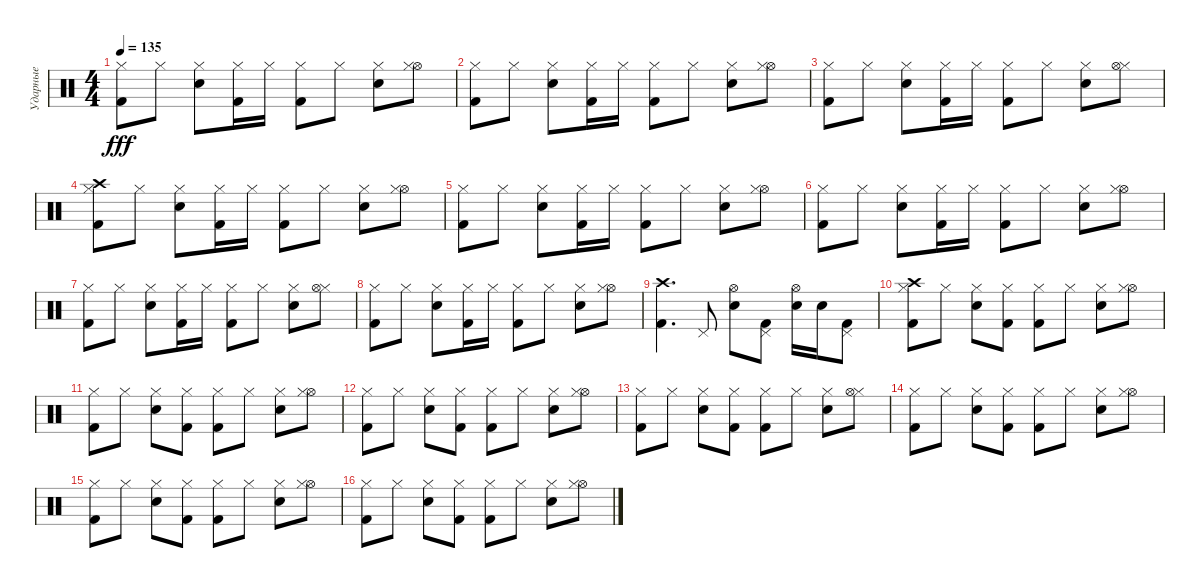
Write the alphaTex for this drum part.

\track ("Ударные" "Ударные") {instrument percussion}
\staff {score}
\articulation defaults
\ts (4 4)
\tempo 135
\clef neutral
\ks c
("Hi-Hat (closed)" "Kick (hit) 2").8{dy fff} "Hi-Hat (closed)".8 ("Hi-Hat (closed)" "Snare (hit) 2").8 ("Kick (hit) 2" "Hi-Hat (closed)").16 "Hi-Hat (closed)".16 ("Hi-Hat (closed)" "Kick (hit) 2").8 "Hi-Hat (closed)".8 ("Hi-Hat (closed)" "Snare (hit) 2").8 ("Hi-Hat (open)" "Hi-Hat (closed)").8 |
("Hi-Hat (closed)" "Kick (hit) 2").8 "Hi-Hat (closed)".8 ("Snare (hit) 2" "Hi-Hat (closed)").8 ("Hi-Hat (closed)" "Kick (hit) 2").16 "Hi-Hat (closed)".16 ("Hi-Hat (closed)" "Kick (hit) 2").8 "Hi-Hat (closed)".8 ("Hi-Hat (closed)" "Snare (hit) 2").8 ("Hi-Hat (open)" "Hi-Hat (closed)").8 |
("Hi-Hat (closed)" "Kick (hit) 2").8 "Hi-Hat (closed)".8 ("Hi-Hat (closed)" "Snare (hit) 2").8 ("Kick (hit) 2" "Hi-Hat (closed)").16 "Hi-Hat (closed)".16 ("Hi-Hat (closed)" "Kick (hit) 2").8 "Hi-Hat (closed)".8 ("Snare (hit) 2" "Hi-Hat (closed)").8 ("Hi-Hat (closed)" "Hi-Hat (open)").8 |
("Crash high (hit)" "Hi-Hat (closed)" "Kick (hit) 2").8 "Hi-Hat (closed)".8 ("Hi-Hat (closed)" "Snare (hit) 2").8 ("Hi-Hat (closed)" "Kick (hit) 2").16 "Hi-Hat (closed)".16 ("Hi-Hat (closed)" "Kick (hit) 2").8 "Hi-Hat (closed)".8 ("Snare (hit) 2" "Hi-Hat (closed)").8 ("Hi-Hat (open)" "Hi-Hat (closed)").8 |
("Hi-Hat (closed)" "Kick (hit) 2").8 "Hi-Hat (closed)".8 ("Hi-Hat (closed)" "Snare (hit) 2").8 ("Kick (hit) 2" "Hi-Hat (closed)").16 "Hi-Hat (closed)".16 ("Hi-Hat (closed)" "Kick (hit) 2").8 "Hi-Hat (closed)".8 ("Hi-Hat (closed)" "Snare (hit) 2").8 ("Hi-Hat (open)" "Hi-Hat (closed)").8 |
("Hi-Hat (closed)" "Kick (hit) 2").8 "Hi-Hat (closed)".8 ("Snare (hit) 2" "Hi-Hat (closed)").8 ("Hi-Hat (closed)" "Kick (hit) 2").16 "Hi-Hat (closed)".16 ("Hi-Hat (closed)" "Kick (hit) 2").8 "Hi-Hat (closed)".8 ("Hi-Hat (closed)" "Snare (hit) 2").8 ("Hi-Hat (open)" "Hi-Hat (closed)").8 |
("Hi-Hat (closed)" "Kick (hit) 2").8 "Hi-Hat (closed)".8 ("Hi-Hat (closed)" "Snare (hit) 2").8 ("Kick (hit) 2" "Hi-Hat (closed)").16 "Hi-Hat (closed)".16 ("Hi-Hat (closed)" "Kick (hit) 2").8 "Hi-Hat (closed)".8 ("Snare (hit) 2" "Hi-Hat (closed)").8 ("Hi-Hat (closed)" "Hi-Hat (open)").8 |
("Hi-Hat (closed)" "Kick (hit) 2").8 "Hi-Hat (closed)".8 ("Hi-Hat (closed)" "Snare (hit) 2").8 ("Hi-Hat (closed)" "Kick (hit) 2").16 "Hi-Hat (closed)".16 ("Hi-Hat (closed)" "Kick (hit) 2").8 "Hi-Hat (closed)".8 ("Snare (hit) 2" "Hi-Hat (closed)").8 ("Hi-Hat (open)" "Hi-Hat (closed)").8 |
("Crash high (hit)" "Kick (hit) 2").4{d} "Pedal Hi-Hat (hit)".8 ("Snare (hit) 2" "Hi-Hat (open)").8 ("Kick (hit) 2" "Pedal Hi-Hat (hit)").8 ("Hi-Hat (open)" "Snare (hit) 2").16 "Snare (hit) 2".16 ("Kick (hit) 2" "Pedal Hi-Hat (hit)").8 |
("Crash high (hit)" "Hi-Hat (closed)" "Kick (hit) 2").8 "Hi-Hat (closed)".8 ("Hi-Hat (closed)" "Snare (hit) 2").8 ("Hi-Hat (closed)" "Kick (hit) 2").8 ("Hi-Hat (closed)" "Kick (hit) 2").8 "Hi-Hat (closed)".8 ("Snare (hit) 2" "Hi-Hat (closed)").8 ("Hi-Hat (open)" "Hi-Hat (closed)").8 |
("Hi-Hat (closed)" "Kick (hit) 2").8 "Hi-Hat (closed)".8 ("Hi-Hat (closed)" "Snare (hit) 2").8 ("Kick (hit) 2" "Hi-Hat (closed)").8 ("Hi-Hat (closed)" "Kick (hit) 2").8 "Hi-Hat (closed)".8 ("Hi-Hat (closed)" "Snare (hit) 2").8 ("Hi-Hat (open)" "Hi-Hat (closed)").8 |
("Hi-Hat (closed)" "Kick (hit) 2").8 "Hi-Hat (closed)".8 ("Snare (hit) 2" "Hi-Hat (closed)").8 ("Hi-Hat (closed)" "Kick (hit) 2").8 ("Hi-Hat (closed)" "Kick (hit) 2").8 "Hi-Hat (closed)".8 ("Hi-Hat (closed)" "Snare (hit) 2").8 ("Hi-Hat (open)" "Hi-Hat (closed)").8 |
("Hi-Hat (closed)" "Kick (hit) 2").8 "Hi-Hat (closed)".8 ("Hi-Hat (closed)" "Snare (hit) 2").8 ("Kick (hit) 2" "Hi-Hat (closed)").8 ("Hi-Hat (closed)" "Kick (hit) 2").8 "Hi-Hat (closed)".8 ("Snare (hit) 2" "Hi-Hat (closed)").8 ("Hi-Hat (closed)" "Hi-Hat (open)").8 |
("Hi-Hat (closed)" "Kick (hit) 2").8 "Hi-Hat (closed)".8 ("Hi-Hat (closed)" "Snare (hit) 2").8 ("Hi-Hat (closed)" "Kick (hit) 2").8 ("Hi-Hat (closed)" "Kick (hit) 2").8 "Hi-Hat (closed)".8 ("Snare (hit) 2" "Hi-Hat (closed)").8 ("Hi-Hat (open)" "Hi-Hat (closed)").8 |
("Hi-Hat (closed)" "Kick (hit) 2").8 "Hi-Hat (closed)".8 ("Hi-Hat (closed)" "Snare (hit) 2").8 ("Kick (hit) 2" "Hi-Hat (closed)").8 ("Hi-Hat (closed)" "Kick (hit) 2").8 "Hi-Hat (closed)".8 ("Hi-Hat (closed)" "Snare (hit) 2").8 ("Hi-Hat (open)" "Hi-Hat (closed)").8 |
("Hi-Hat (closed)" "Kick (hit) 2").8 "Hi-Hat (closed)".8 ("Snare (hit) 2" "Hi-Hat (closed)").8 ("Hi-Hat (closed)" "Kick (hit) 2").8 ("Hi-Hat (closed)" "Kick (hit) 2").8 "Hi-Hat (closed)".8 ("Hi-Hat (closed)" "Snare (hit) 2").8 ("Hi-Hat (open)" "Hi-Hat (closed)").8
